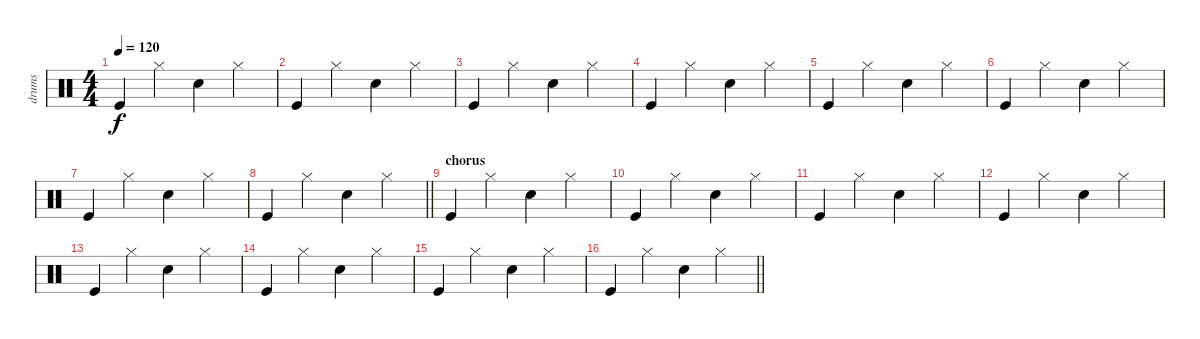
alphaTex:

\track ("drums" "drums") {instrument percussion}
\staff {score}
\articulation defaults
\ts (4 4)
\tempo 120
\clef neutral
\ks c "Kick (hit)".4{dy f} "Hi-Hat (closed)".4 "Snare (hit) 2".4 "Hi-Hat (closed)".4
|
"Kick (hit)".4 "Hi-Hat (closed)".4 "Snare (hit) 2".4 "Hi-Hat (closed)".4 |
"Kick (hit)".4 "Hi-Hat (closed)".4 "Snare (hit) 2".4 "Hi-Hat (closed)".4 |
"Kick (hit)".4 "Hi-Hat (closed)".4 "Snare (hit) 2".4 "Hi-Hat (closed)".4 |
"Kick (hit)".4 "Hi-Hat (closed)".4 "Snare (hit) 2".4 "Hi-Hat (closed)".4 |
"Kick (hit)".4 "Hi-Hat (closed)".4 "Snare (hit) 2".4 "Hi-Hat (closed)".4 |
"Kick (hit)".4 "Hi-Hat (closed)".4 "Snare (hit) 2".4 "Hi-Hat (closed)".4 |
\barLineRight lightlight "Kick (hit)".4 "Hi-Hat (closed)".4 "Snare (hit) 2".4 "Hi-Hat (closed)".4
|
\section ("" "chorus")
"Kick (hit)".4 "Hi-Hat (closed)".4 "Snare (hit) 2".4 "Hi-Hat (closed)".4 |
"Kick (hit)".4 "Hi-Hat (closed)".4 "Snare (hit) 2".4 "Hi-Hat (closed)".4 |
"Kick (hit)".4 "Hi-Hat (closed)".4 "Snare (hit) 2".4 "Hi-Hat (closed)".4 |
"Kick (hit)".4 "Hi-Hat (closed)".4 "Snare (hit) 2".4 "Hi-Hat (closed)".4 |
"Kick (hit)".4 "Hi-Hat (closed)".4 "Snare (hit) 2".4 "Hi-Hat (closed)".4 |
"Kick (hit)".4 "Hi-Hat (closed)".4 "Snare (hit) 2".4 "Hi-Hat (closed)".4 |
"Kick (hit)".4 "Hi-Hat (closed)".4 "Snare (hit) 2".4 "Hi-Hat (closed)".4 |
\barLineRight lightlight "Kick (hit)".4 "Hi-Hat (closed)".4 "Snare (hit) 2".4 "Hi-Hat (closed)".4
